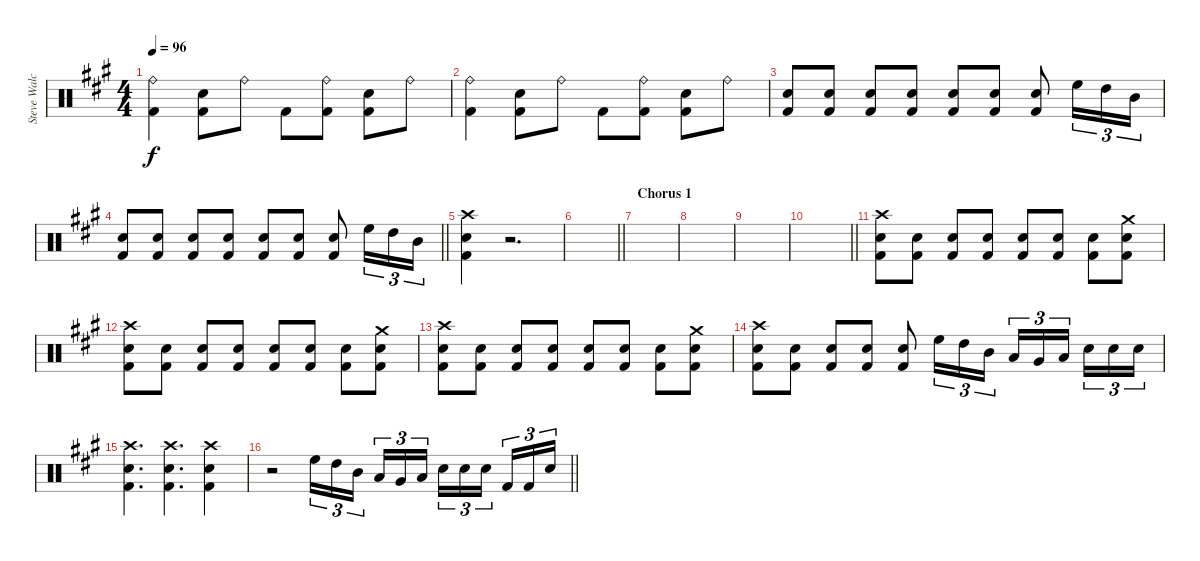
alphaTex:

\track ("Steve Walchoz" "Steve Walc") {instrument percussion}
\staff {score}
\articulation defaults
\ts (4 4)
\tempo 96
\clef neutral
\ks a
("Ride (bell)" "Kick (hit) 2").4{dy f} ("Snare (hit) 2" "Kick (hit) 2").8 "Ride (bell)".8 "Kick (hit) 2".8 ("Ride (bell)" "Kick (hit) 2").8 ("Snare (hit) 2" "Kick (hit) 2").8 "Ride (bell)".8 |
("Ride (bell)" "Kick (hit) 2").4 ("Snare (hit) 2" "Kick (hit) 2").8 "Ride (bell)".8 "Kick (hit) 2".8 ("Ride (bell)" "Kick (hit) 2").8 ("Snare (hit) 2" "Kick (hit) 2").8 "Ride (bell)".8 |
("Snare (hit) 2" "Kick (hit) 2").8 ("Snare (hit) 2" "Kick (hit) 2").8 ("Snare (hit) 2" "Kick (hit) 2").8 ("Snare (hit) 2" "Kick (hit) 2").8 ("Snare (hit) 2" "Kick (hit) 2").8 ("Snare (hit) 2" "Kick (hit) 2").8 ("Snare (hit) 2" "Kick (hit) 2").8 "High Floor Tom (hit)".16{tu (3 2)} "High Tom (hit)".16{tu (3 2)} "Mid Tom (hit)".16{tu (3 2)} |
\barLineRight lightlight
("Snare (hit) 2" "Kick (hit) 2").8 ("Snare (hit) 2" "Kick (hit) 2").8 ("Snare (hit) 2" "Kick (hit) 2").8 ("Snare (hit) 2" "Kick (hit) 2").8 ("Snare (hit) 2" "Kick (hit) 2").8 ("Snare (hit) 2" "Kick (hit) 2").8 ("Snare (hit) 2" "Kick (hit) 2").8 "High Floor Tom (hit)".16{tu (3 2)} "High Tom (hit)".16{tu (3 2)} "Mid Tom (hit)".16{tu (3 2)} |
("Crash high (hit)" "Snare (hit) 2" "Kick (hit) 2").4 r.2{d} |
\barLineRight lightlight
|
\section ("" "Chorus 1")
|
|
|
\barLineRight lightlight
|
("Crash high (hit)" "Snare (hit) 2" "Kick (hit) 2").8 ("Snare (hit) 2" "Kick (hit) 2").8 ("Snare (hit) 2" "Kick (hit) 2").8 ("Snare (hit) 2" "Kick (hit) 2").8 ("Snare (hit) 2" "Kick (hit) 2").8 ("Snare (hit) 2" "Kick (hit) 2").8 ("Snare (hit) 2" "Kick (hit) 2").8 ("Crash medium (hit)" "Snare (hit) 2" "Kick (hit) 2").8 |
("Crash high (hit)" "Snare (hit) 2" "Kick (hit) 2").8 ("Snare (hit) 2" "Kick (hit) 2").8 ("Snare (hit) 2" "Kick (hit) 2").8 ("Snare (hit) 2" "Kick (hit) 2").8 ("Snare (hit) 2" "Kick (hit) 2").8 ("Snare (hit) 2" "Kick (hit) 2").8 ("Snare (hit) 2" "Kick (hit) 2").8 ("Crash medium (hit)" "Snare (hit) 2" "Kick (hit) 2").8 |
("Crash high (hit)" "Snare (hit) 2" "Kick (hit) 2").8 ("Snare (hit) 2" "Kick (hit) 2").8 ("Snare (hit) 2" "Kick (hit) 2").8 ("Snare (hit) 2" "Kick (hit) 2").8 ("Snare (hit) 2" "Kick (hit) 2").8 ("Snare (hit) 2" "Kick (hit) 2").8 ("Snare (hit) 2" "Kick (hit) 2").8 ("Crash medium (hit)" "Snare (hit) 2" "Kick (hit) 2").8 |
("Crash high (hit)" "Snare (hit) 2" "Kick (hit) 2").8 ("Snare (hit) 2" "Kick (hit) 2").8 ("Snare (hit) 2" "Kick (hit) 2").8 ("Snare (hit) 2" "Kick (hit) 2").8 ("Snare (hit) 2" "Kick (hit) 2").8 "High Floor Tom (hit)".16{tu (3 2)} "High Tom (hit)".16{tu (3 2)} "Mid Tom (hit)".16{tu (3 2)} "Low Tom (hit)".16{tu (3 2)} "Very Low Tom (hit)".16{tu (3 2)} "Low Floor Tom (hit)".16{tu (3 2) beam splitsecondary} "Snare (hit) 2".16{tu (3 2)} "Snare (hit) 2".16{tu (3 2)} "Snare (hit) 2".16{tu (3 2)} |
("Crash high (hit)" "Snare (hit) 2" "Kick (hit) 2").4{d} ("Crash high (hit)" "Snare (hit) 2" "Kick (hit) 2").4{d} ("Crash high (hit)" "Snare (hit) 2" "Kick (hit) 2").4 |
\barLineRight lightlight
r.2 "High Floor Tom (hit)".16{tu (3 2)} "High Tom (hit)".16{tu (3 2)} "Mid Tom (hit)".16{tu (3 2) beam splitsecondary} "Low Tom (hit)".16{tu (3 2)} "Very Low Tom (hit)".16{tu (3 2)} "Low Floor Tom (hit)".16{tu (3 2)} "Snare (hit) 2".16{tu (3 2)} "Snare (hit) 2".16{tu (3 2)} "Snare (hit) 2".16{tu (3 2) beam splitsecondary} "Kick (hit) 2".16{tu (3 2)} "Kick (hit) 2".16{tu (3 2)} "Snare (hit) 2".16{tu (3 2)}
